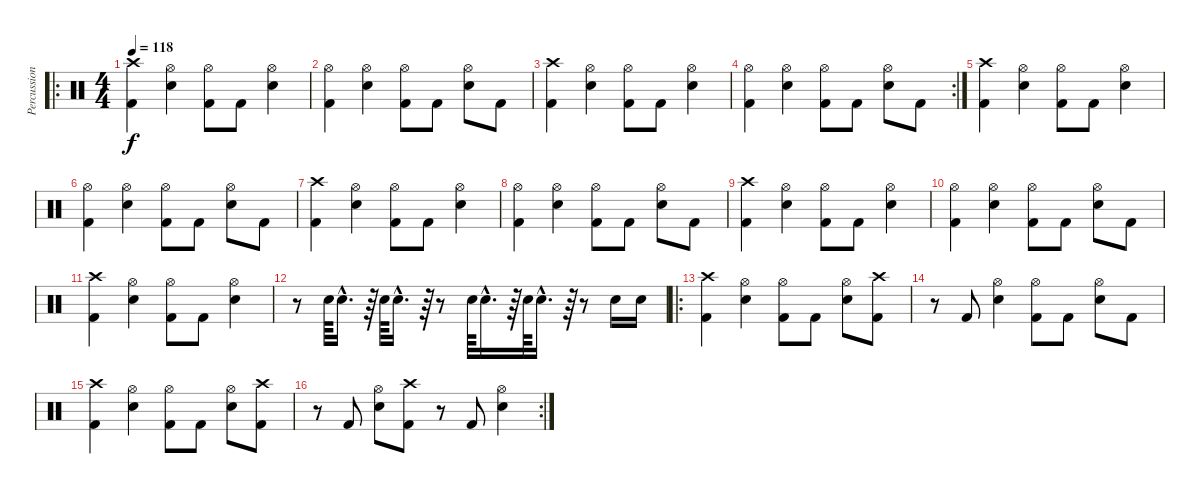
\track ("Percussion" "Percussion") {instrument percussion}
\staff {score}
\articulation defaults
\ro
\ts (4 4)
\tempo 118
\clef neutral
\ks c
("Crash high (hit)" "Kick (hit) 2").4{dy f} ("Hi-Hat (open)" "Snare (hit) 2").4 ("Hi-Hat (open)" "Kick (hit) 2").8 "Kick (hit) 2".8 ("Hi-Hat (open)" "Snare (hit) 2").4 |
("Hi-Hat (open)" "Kick (hit) 2").4 ("Hi-Hat (open)" "Snare (hit) 2").4 ("Hi-Hat (open)" "Kick (hit) 2").8 "Kick (hit) 2".8 ("Hi-Hat (open)" "Snare (hit) 2").8 "Kick (hit) 2".8 |
("Crash high (hit)" "Kick (hit) 2").4 ("Hi-Hat (open)" "Snare (hit) 2").4 ("Hi-Hat (open)" "Kick (hit) 2").8 "Kick (hit) 2".8 ("Hi-Hat (open)" "Snare (hit) 2").4 |
\rc 2
("Hi-Hat (open)" "Kick (hit) 2").4 ("Hi-Hat (open)" "Snare (hit) 2").4 ("Hi-Hat (open)" "Kick (hit) 2").8 "Kick (hit) 2".8 ("Hi-Hat (open)" "Snare (hit) 2").8 "Kick (hit) 2".8 |
("Crash high (hit)" "Kick (hit) 2").4 ("Hi-Hat (open)" "Snare (hit) 2").4 ("Hi-Hat (open)" "Kick (hit) 2").8 "Kick (hit) 2".8 ("Hi-Hat (open)" "Snare (hit) 2").4 |
("Hi-Hat (open)" "Kick (hit) 2").4 ("Hi-Hat (open)" "Snare (hit) 2").4 ("Hi-Hat (open)" "Kick (hit) 2").8 "Kick (hit) 2".8 ("Hi-Hat (open)" "Snare (hit) 2").8 "Kick (hit) 2".8 |
("Crash high (hit)" "Kick (hit) 2").4 ("Hi-Hat (open)" "Snare (hit) 2").4 ("Hi-Hat (open)" "Kick (hit) 2").8 "Kick (hit) 2".8 ("Hi-Hat (open)" "Snare (hit) 2").4 |
("Hi-Hat (open)" "Kick (hit) 2").4 ("Hi-Hat (open)" "Snare (hit) 2").4 ("Hi-Hat (open)" "Kick (hit) 2").8 "Kick (hit) 2".8 ("Hi-Hat (open)" "Snare (hit) 2").8 "Kick (hit) 2".8 |
("Crash high (hit)" "Kick (hit) 2").4 ("Hi-Hat (open)" "Snare (hit) 2").4 ("Hi-Hat (open)" "Kick (hit) 2").8 "Kick (hit) 2".8 ("Hi-Hat (open)" "Snare (hit) 2").4 |
("Hi-Hat (open)" "Kick (hit) 2").4 ("Hi-Hat (open)" "Snare (hit) 2").4 ("Hi-Hat (open)" "Kick (hit) 2").8 "Kick (hit) 2".8 ("Hi-Hat (open)" "Snare (hit) 2").8 "Kick (hit) 2".8 |
("Crash high (hit)" "Kick (hit) 2").4 ("Hi-Hat (open)" "Snare (hit) 2").4 ("Hi-Hat (open)" "Kick (hit) 2").8 "Kick (hit) 2".8 ("Hi-Hat (open)" "Snare (hit) 2").4 |
r.8 "Snare (hit) 2".64 "Snare (hit) 2"{hac}.16{d} r.64 "Snare (hit) 2".64 "Snare (hit) 2"{hac}.16{d} r.64 r.8 "Snare (hit) 2".64 "Snare (hit) 2"{hac}.16{d} r.64 "Snare (hit) 2".64 "Snare (hit) 2"{hac}.16{d} r.64 r.8 "Snare (hit) 2".16 "Snare (hit) 2".16 |
\ro
("Crash high (hit)" "Kick (hit) 2").4 ("Hi-Hat (open)" "Snare (hit) 2").4 ("Hi-Hat (open)" "Kick (hit) 2").8 "Kick (hit) 2".8 ("Hi-Hat (open)" "Snare (hit) 2").8 ("Crash high (hit)" "Kick (hit) 2").8 |
r.8 "Kick (hit) 2".8 ("Hi-Hat (open)" "Snare (hit) 2").4 ("Hi-Hat (open)" "Kick (hit) 2").8 "Kick (hit) 2".8 ("Hi-Hat (open)" "Snare (hit) 2").8 "Kick (hit) 2".8 |
("Crash high (hit)" "Kick (hit) 2").4 ("Hi-Hat (open)" "Snare (hit) 2").4 ("Hi-Hat (open)" "Kick (hit) 2").8 "Kick (hit) 2".8 ("Hi-Hat (open)" "Snare (hit) 2").8 ("Crash high (hit)" "Kick (hit) 2").8 |
\rc 2
r.8 "Kick (hit) 2".8 ("Hi-Hat (open)" "Snare (hit) 2").8 ("Crash high (hit)" "Kick (hit) 2").8 r.8 "Kick (hit) 2".8 ("Hi-Hat (open)" "Snare (hit) 2").4
